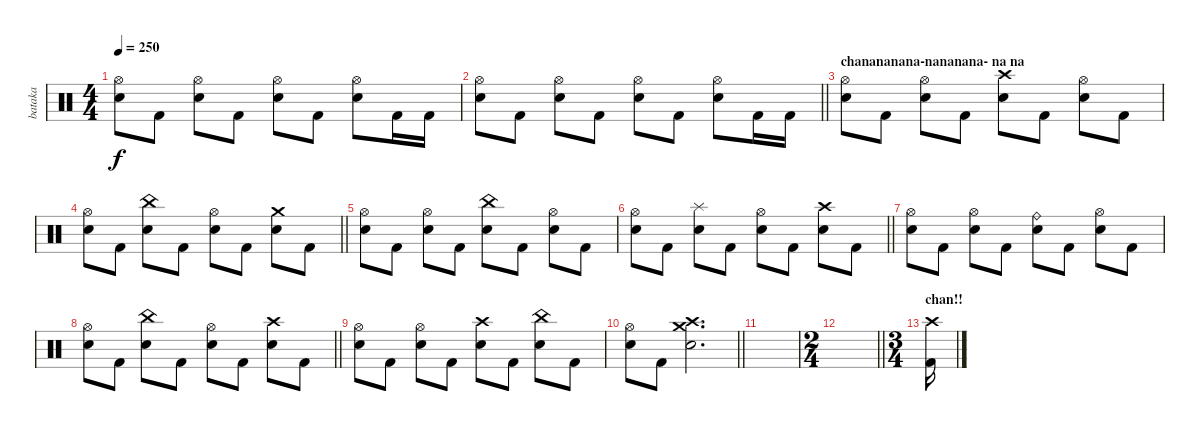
\track ("bataka" "bataka") {instrument percussion}
\staff {score}
\articulation defaults
\ts (4 4)
\tempo 250
\clef neutral
\ks c
("Hi-Hat (open)" "Electric Snare (hit)").8{dy f} "Kick (hit) 2".8 ("Hi-Hat (open)" "Electric Snare (hit)").8 "Kick (hit) 2".8 ("Hi-Hat (open)" "Electric Snare (hit)").8 "Kick (hit) 2".8 ("Hi-Hat (open)" "Electric Snare (hit)").8 "Kick (hit) 2".16 "Kick (hit) 2".16 |
\barLineRight lightlight
("Hi-Hat (open)" "Electric Snare (hit)").8 "Kick (hit) 2".8 ("Hi-Hat (open)" "Electric Snare (hit)").8 "Kick (hit) 2".8 ("Hi-Hat (open)" "Electric Snare (hit)").8 "Kick (hit) 2".8 ("Hi-Hat (open)" "Electric Snare (hit)").8 "Kick (hit) 2".16 "Kick (hit) 2".16 |
\section ("" "chanananana-nananana- na na")
("Hi-Hat (open)" "Electric Snare (hit)").8 "Kick (hit) 2".8 ("Hi-Hat (open)" "Electric Snare (hit)").8 "Kick (hit) 2".8 ("Crash high (hit)" "Electric Snare (hit)").8 "Kick (hit) 2".8 ("Hi-Hat (open)" "Electric Snare (hit)").8 "Kick (hit) 2".8 |
\barLineRight lightlight
("Hi-Hat (open)" "Electric Snare (hit)").8 "Kick (hit) 2".8 ("China (hit)" "Electric Snare (hit)").8 "Kick (hit) 2".8 ("Hi-Hat (open)" "Electric Snare (hit)").8 "Kick (hit) 2".8 ("Crash medium (hit)" "Electric Snare (hit)").8 "Kick (hit) 2".8 |
("Hi-Hat (open)" "Electric Snare (hit)").8 "Kick (hit) 2".8 ("Hi-Hat (open)" "Electric Snare (hit)").8 "Kick (hit) 2".8 ("China (hit)" "Electric Snare (hit)").8 "Kick (hit) 2".8 ("Hi-Hat (open)" "Electric Snare (hit)").8 "Kick (hit) 2".8 |
\barLineRight lightlight
("Hi-Hat (open)" "Electric Snare (hit)").8 "Kick (hit) 2".8 ("Splash (hit)" "Electric Snare (hit)").8 "Kick (hit) 2".8 ("Hi-Hat (open)" "Electric Snare (hit)").8 "Kick (hit) 2".8 ("Crash high (hit)" "Electric Snare (hit)").8 "Kick (hit) 2".8 |
("Hi-Hat (open)" "Electric Snare (hit)").8 "Kick (hit) 2".8 ("Hi-Hat (open)" "Electric Snare (hit)").8 "Kick (hit) 2".8 ("Ride (bell)" "Electric Snare (hit)").8 "Kick (hit) 2".8 ("Hi-Hat (open)" "Electric Snare (hit)").8 "Kick (hit) 2".8 |
\barLineRight lightlight
("Hi-Hat (open)" "Electric Snare (hit)").8 "Kick (hit) 2".8 ("China (hit)" "Electric Snare (hit)").8 "Kick (hit) 2".8 ("Hi-Hat (open)" "Electric Snare (hit)").8 "Kick (hit) 2".8 ("Crash high (hit)" "Electric Snare (hit)").8 "Kick (hit) 2".8 |
("Hi-Hat (open)" "Electric Snare (hit)").8 "Kick (hit) 2".8 ("Hi-Hat (open)" "Electric Snare (hit)").8 "Kick (hit) 2".8 ("Crash high (hit)" "Electric Snare (hit)").8 "Kick (hit) 2".8 ("China (hit)" "Electric Snare (hit)").8 "Kick (hit) 2".8 |
\barLineRight lightlight
("Hi-Hat (open)" "Electric Snare (hit)").8 "Kick (hit) 2".8 ("Crash high (hit)" "Crash medium (hit)" "Electric Snare (hit)").2{d} |
|
\ts (2 4)
\barLineRight lightlight
|
\ts (3 4)
\section ("" "chan!!")
("Crash high (hit)" "Kick (hit) 2").16
